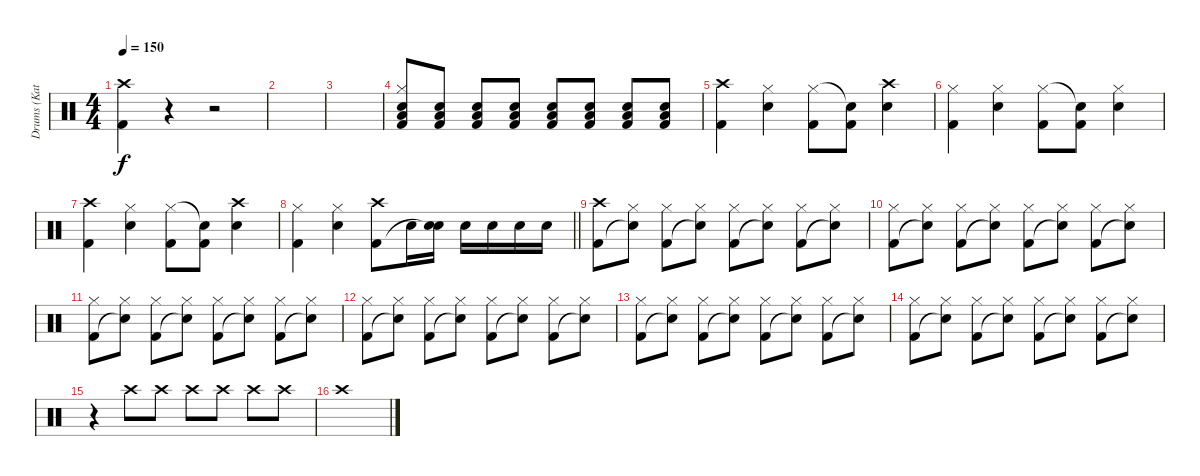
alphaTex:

\track ("Drums (Katsuji)" "Drums (Kat") {instrument percussion}
\staff {score}
\articulation defaults
\ts (4 4)
\tempo 150
\clef neutral
\ks c
("Crash high (hit)" "Kick (hit) 2").4{dy f} r.4 r.2 |
|
|
("Hi-Hat (closed)" "Snare (hit) 2" "Low Tom (hit)" "Kick (hit) 2").8 ("Snare (hit) 2" "Low Tom (hit)" "Kick (hit) 2").8 ("Snare (hit) 2" "Low Tom (hit)" "Kick (hit) 2").8 ("Snare (hit) 2" "Low Tom (hit)" "Kick (hit) 2").8 ("Snare (hit) 2" "Low Tom (hit)" "Kick (hit) 2").8 ("Snare (hit) 2" "Low Tom (hit)" "Kick (hit) 2").8 ("Snare (hit) 2" "Low Tom (hit)" "Kick (hit) 2").8 ("Snare (hit) 2" "Low Tom (hit)" "Kick (hit) 2").8 |
("Crash high (hit)" "Kick (hit) 2").4 ("Hi-Hat (closed)" "Snare (hit) 2").4 ("Hi-Hat (closed)" "Kick (hit) 2").8 ("Snare (hit)"{t} "Kick (hit) 2").8 ("Crash high (hit)" "Snare (hit) 2").4 |
("Hi-Hat (closed)" "Kick (hit) 2").4 ("Hi-Hat (closed)" "Snare (hit) 2").4 ("Hi-Hat (closed)" "Kick (hit) 2").8 ("Snare (hit)"{t} "Kick (hit) 2").8 ("Hi-Hat (closed)" "Snare (hit) 2").4 |
("Crash high (hit)" "Kick (hit) 2").4 ("Hi-Hat (closed)" "Snare (hit) 2").4 ("Hi-Hat (closed)" "Kick (hit) 2").8 ("Snare (hit)"{t} "Kick (hit) 2").8 ("Crash high (hit)" "Snare (hit) 2").4 |
\barLineRight lightlight
("Hi-Hat (closed)" "Kick (hit) 2").4 ("Hi-Hat (closed)" "Snare (hit) 2").4 ("Crash high (hit)" "Kick (hit) 2").8 "Snare (hit) 2".16 ("Snare (hit) 2" "Snare (hit)"{t}).16 "Snare (hit) 2".16 "Snare (hit) 2".16 "Snare (hit) 2".16 "Snare (hit) 2".16 |
("Crash high (hit)" "Kick (hit) 2").8 ("Hi-Hat (closed)" "Snare (hit)"{t}).8 ("Hi-Hat (closed)" "Kick (hit) 2").8 ("Hi-Hat (closed)" "Snare (hit)"{t}).8 ("Hi-Hat (closed)" "Kick (hit) 2").8 ("Hi-Hat (closed)" "Snare (hit)"{t}).8 ("Hi-Hat (closed)" "Kick (hit) 2").8 ("Hi-Hat (closed)" "Snare (hit)"{t}).8 |
("Hi-Hat (closed)" "Kick (hit) 2").8 ("Hi-Hat (closed)" "Snare (hit)"{t}).8 ("Hi-Hat (closed)" "Kick (hit) 2").8 ("Hi-Hat (closed)" "Snare (hit)"{t}).8 ("Hi-Hat (closed)" "Kick (hit) 2").8 ("Hi-Hat (closed)" "Snare (hit)"{t}).8 ("Hi-Hat (closed)" "Kick (hit) 2").8 ("Hi-Hat (closed)" "Snare (hit)"{t}).8 |
("Hi-Hat (closed)" "Kick (hit) 2").8 ("Hi-Hat (closed)" "Snare (hit)"{t}).8 ("Hi-Hat (closed)" "Kick (hit) 2").8 ("Hi-Hat (closed)" "Snare (hit)"{t}).8 ("Hi-Hat (closed)" "Kick (hit) 2").8 ("Hi-Hat (closed)" "Snare (hit)"{t}).8 ("Hi-Hat (closed)" "Kick (hit) 2").8 ("Hi-Hat (closed)" "Snare (hit)"{t}).8 |
("Hi-Hat (closed)" "Kick (hit) 2").8 ("Hi-Hat (closed)" "Snare (hit)"{t}).8 ("Hi-Hat (closed)" "Kick (hit) 2").8 ("Hi-Hat (closed)" "Snare (hit)"{t}).8 ("Hi-Hat (closed)" "Kick (hit) 2").8 ("Hi-Hat (closed)" "Snare (hit)"{t}).8 ("Hi-Hat (closed)" "Kick (hit) 2").8 ("Hi-Hat (closed)" "Snare (hit)"{t}).8 |
("Hi-Hat (closed)" "Kick (hit) 2").8 ("Hi-Hat (closed)" "Snare (hit)"{t}).8 ("Hi-Hat (closed)" "Kick (hit) 2").8 ("Hi-Hat (closed)" "Snare (hit)"{t}).8 ("Hi-Hat (closed)" "Kick (hit) 2").8 ("Hi-Hat (closed)" "Snare (hit)"{t}).8 ("Hi-Hat (closed)" "Kick (hit) 2").8 ("Hi-Hat (closed)" "Snare (hit)"{t}).8 |
("Hi-Hat (closed)" "Kick (hit) 2").8 ("Hi-Hat (closed)" "Snare (hit)"{t}).8 ("Hi-Hat (closed)" "Kick (hit) 2").8 ("Hi-Hat (closed)" "Snare (hit)"{t}).8 ("Hi-Hat (closed)" "Kick (hit) 2").8 ("Hi-Hat (closed)" "Snare (hit)"{t}).8 ("Hi-Hat (closed)" "Kick (hit) 2").8 ("Hi-Hat (closed)" "Snare (hit)"{t}).8 |
r.4 "Crash high (hit)".8 "Crash high (hit)".8 "Crash high (hit)".8 "Crash high (hit)".8 "Crash high (hit)".8 "Crash high (hit)".8 |
"Crash high (hit)".1
